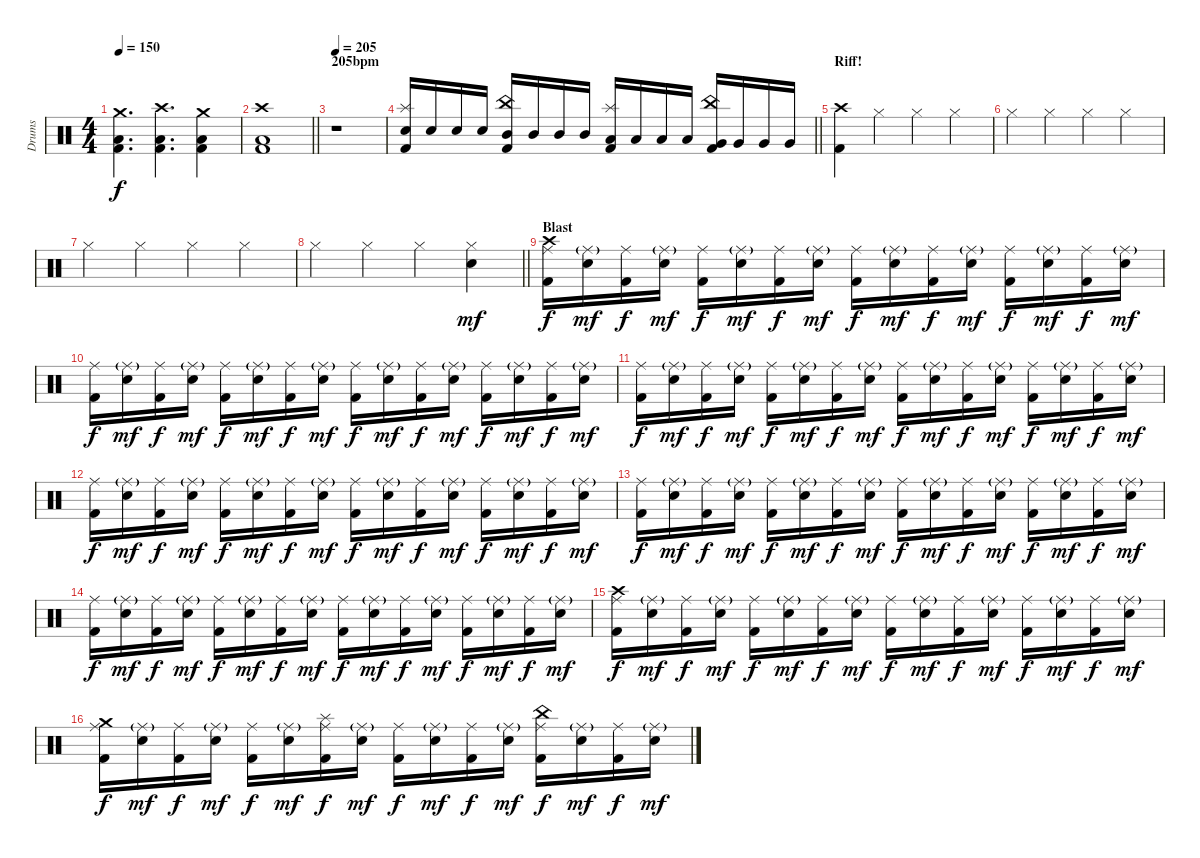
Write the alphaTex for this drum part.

\track ("Drums" "Drums") {instrument percussion}
\staff {score}
\articulation defaults
\ts (4 4)
\tempo 150
\clef neutral
\ks c
("Crash medium (hit)" "Low Floor Tom (hit)" "Kick (hit) 2").4{d dy f} ("Crash high (hit)" "Low Floor Tom (hit)" "Kick (hit) 2").4{d} ("Crash medium (hit)" "Low Floor Tom (hit)" "Kick (hit) 2").4 |
\barLineRight lightlight
("Crash high (hit)" "Low Floor Tom (hit)" "Kick (hit) 2").1 |
\section ("" "205bpm")
\tempo 205
r.1 |
\barLineRight lightlight
("Splash (hit)" "Snare (hit) 2" "Kick (hit) 2").16 "Snare (hit) 2".16 "Snare (hit) 2".16 "Snare (hit) 2".16 ("China (hit)" "Mid Tom (hit)" "Kick (hit) 2").16 "Mid Tom (hit)".16 "Mid Tom (hit)".16 "Mid Tom (hit)".16 ("Splash (hit)" "Low Tom (hit)" "Kick (hit) 2").16 "Low Tom (hit)".16 "Low Tom (hit)".16 "Low Tom (hit)".16 ("China (hit)" "Very Low Tom (hit)" "Kick (hit) 2").16 "Very Low Tom (hit)".16 "Very Low Tom (hit)".16 "Very Low Tom (hit)".16 |
\section ("" "Riff!")
("Crash high (hit)" "Kick (hit) 2").4 "Hi-Hat (closed)".4 "Hi-Hat (closed)".4 "Hi-Hat (closed)".4 |
"Hi-Hat (closed)".4 "Hi-Hat (closed)".4 "Hi-Hat (closed)".4 "Hi-Hat (closed)".4 |
"Hi-Hat (closed)".4 "Hi-Hat (closed)".4 "Hi-Hat (closed)".4 "Hi-Hat (closed)".4 |
\barLineRight lightlight "Hi-Hat (closed)".4 "Hi-Hat (closed)".4 "Hi-Hat (closed)".4
("Hi-Hat (closed)" "Snare (hit) 2").4{dy mf} |
\section ("" "Blast")
("Crash high (hit)" "Ride (middle)" "Kick (hit) 2").16{dy f} ("Ride (middle)"{g} "Snare (hit) 2").16{dy mf} ("Ride (middle)" "Kick (hit) 2").16{dy f} ("Ride (middle)"{g} "Snare (hit) 2").16{dy mf} ("Ride (middle)" "Kick (hit) 2").16{dy f} ("Ride (middle)"{g} "Snare (hit) 2").16{dy mf} ("Ride (middle)" "Kick (hit) 2").16{dy f} ("Ride (middle)"{g} "Snare (hit) 2").16{dy mf} ("Ride (middle)" "Kick (hit) 2").16{dy f} ("Ride (middle)"{g} "Snare (hit) 2").16{dy mf} ("Ride (middle)" "Kick (hit) 2").16{dy f} ("Ride (middle)"{g} "Snare (hit) 2").16{dy mf} ("Ride (middle)" "Kick (hit) 2").16{dy f} ("Ride (middle)"{g} "Snare (hit) 2").16{dy mf} ("Ride (middle)" "Kick (hit) 2").16{dy f} ("Ride (middle)"{g} "Snare (hit) 2").16{dy mf} |
("Ride (middle)" "Kick (hit) 2").16{dy f} ("Ride (middle)"{g} "Snare (hit) 2").16{dy mf} ("Ride (middle)" "Kick (hit) 2").16{dy f} ("Ride (middle)"{g} "Snare (hit) 2").16{dy mf} ("Ride (middle)" "Kick (hit) 2").16{dy f} ("Ride (middle)"{g} "Snare (hit) 2").16{dy mf} ("Ride (middle)" "Kick (hit) 2").16{dy f} ("Ride (middle)"{g} "Snare (hit) 2").16{dy mf} ("Ride (middle)" "Kick (hit) 2").16{dy f} ("Ride (middle)"{g} "Snare (hit) 2").16{dy mf} ("Ride (middle)" "Kick (hit) 2").16{dy f} ("Ride (middle)"{g} "Snare (hit) 2").16{dy mf} ("Ride (middle)" "Kick (hit) 2").16{dy f} ("Ride (middle)"{g} "Snare (hit) 2").16{dy mf} ("Ride (middle)" "Kick (hit) 2").16{dy f} ("Ride (middle)"{g} "Snare (hit) 2").16{dy mf} |
("Ride (middle)" "Kick (hit) 2").16{dy f} ("Ride (middle)"{g} "Snare (hit) 2").16{dy mf} ("Ride (middle)" "Kick (hit) 2").16{dy f} ("Ride (middle)"{g} "Snare (hit) 2").16{dy mf} ("Ride (middle)" "Kick (hit) 2").16{dy f} ("Ride (middle)"{g} "Snare (hit) 2").16{dy mf} ("Ride (middle)" "Kick (hit) 2").16{dy f} ("Ride (middle)"{g} "Snare (hit) 2").16{dy mf} ("Ride (middle)" "Kick (hit) 2").16{dy f} ("Ride (middle)"{g} "Snare (hit) 2").16{dy mf} ("Ride (middle)" "Kick (hit) 2").16{dy f} ("Ride (middle)"{g} "Snare (hit) 2").16{dy mf} ("Ride (middle)" "Kick (hit) 2").16{dy f} ("Ride (middle)"{g} "Snare (hit) 2").16{dy mf} ("Ride (middle)" "Kick (hit) 2").16{dy f} ("Ride (middle)"{g} "Snare (hit) 2").16{dy mf} |
("Ride (middle)" "Kick (hit) 2").16{dy f} ("Ride (middle)"{g} "Snare (hit) 2").16{dy mf} ("Ride (middle)" "Kick (hit) 2").16{dy f} ("Ride (middle)"{g} "Snare (hit) 2").16{dy mf} ("Ride (middle)" "Kick (hit) 2").16{dy f} ("Ride (middle)"{g} "Snare (hit) 2").16{dy mf} ("Ride (middle)" "Kick (hit) 2").16{dy f} ("Ride (middle)"{g} "Snare (hit) 2").16{dy mf} ("Ride (middle)" "Kick (hit) 2").16{dy f} ("Ride (middle)"{g} "Snare (hit) 2").16{dy mf} ("Ride (middle)" "Kick (hit) 2").16{dy f} ("Ride (middle)"{g} "Snare (hit) 2").16{dy mf} ("Ride (middle)" "Kick (hit) 2").16{dy f} ("Ride (middle)"{g} "Snare (hit) 2").16{dy mf} ("Ride (middle)" "Kick (hit) 2").16{dy f} ("Ride (middle)"{g} "Snare (hit) 2").16{dy mf} |
("Ride (middle)" "Kick (hit) 2").16{dy f} ("Ride (middle)"{g} "Snare (hit) 2").16{dy mf} ("Ride (middle)" "Kick (hit) 2").16{dy f} ("Ride (middle)"{g} "Snare (hit) 2").16{dy mf} ("Ride (middle)" "Kick (hit) 2").16{dy f} ("Ride (middle)"{g} "Snare (hit) 2").16{dy mf} ("Ride (middle)" "Kick (hit) 2").16{dy f} ("Ride (middle)"{g} "Snare (hit) 2").16{dy mf} ("Ride (middle)" "Kick (hit) 2").16{dy f} ("Ride (middle)"{g} "Snare (hit) 2").16{dy mf} ("Ride (middle)" "Kick (hit) 2").16{dy f} ("Ride (middle)"{g} "Snare (hit) 2").16{dy mf} ("Ride (middle)" "Kick (hit) 2").16{dy f} ("Ride (middle)"{g} "Snare (hit) 2").16{dy mf} ("Ride (middle)" "Kick (hit) 2").16{dy f} ("Ride (middle)"{g} "Snare (hit) 2").16{dy mf} |
("Ride (middle)" "Kick (hit) 2").16{dy f} ("Ride (middle)"{g} "Snare (hit) 2").16{dy mf} ("Ride (middle)" "Kick (hit) 2").16{dy f} ("Ride (middle)"{g} "Snare (hit) 2").16{dy mf} ("Ride (middle)" "Kick (hit) 2").16{dy f} ("Ride (middle)"{g} "Snare (hit) 2").16{dy mf} ("Ride (middle)" "Kick (hit) 2").16{dy f} ("Ride (middle)"{g} "Snare (hit) 2").16{dy mf} ("Ride (middle)" "Kick (hit) 2").16{dy f} ("Ride (middle)"{g} "Snare (hit) 2").16{dy mf} ("Ride (middle)" "Kick (hit) 2").16{dy f} ("Ride (middle)"{g} "Snare (hit) 2").16{dy mf} ("Ride (middle)" "Kick (hit) 2").16{dy f} ("Ride (middle)"{g} "Snare (hit) 2").16{dy mf} ("Ride (middle)" "Kick (hit) 2").16{dy f} ("Ride (middle)"{g} "Snare (hit) 2").16{dy mf} |
("Crash high (hit)" "Ride (middle)" "Kick (hit) 2").16{dy f} ("Ride (middle)"{g} "Snare (hit) 2").16{dy mf} ("Ride (middle)" "Kick (hit) 2").16{dy f} ("Ride (middle)"{g} "Snare (hit) 2").16{dy mf} ("Ride (middle)" "Kick (hit) 2").16{dy f} ("Ride (middle)"{g} "Snare (hit) 2").16{dy mf} ("Ride (middle)" "Kick (hit) 2").16{dy f} ("Ride (middle)"{g} "Snare (hit) 2").16{dy mf} ("Ride (middle)" "Kick (hit) 2").16{dy f} ("Ride (middle)"{g} "Snare (hit) 2").16{dy mf} ("Ride (middle)" "Kick (hit) 2").16{dy f} ("Ride (middle)"{g} "Snare (hit) 2").16{dy mf} ("Ride (middle)" "Kick (hit) 2").16{dy f} ("Ride (middle)"{g} "Snare (hit) 2").16{dy mf} ("Ride (middle)" "Kick (hit) 2").16{dy f} ("Ride (middle)"{g} "Snare (hit) 2").16{dy mf} |
("Crash medium (hit)" "Ride (middle)" "Kick (hit) 2").16{dy f} ("Ride (middle)"{g} "Snare (hit) 2").16{dy mf} ("Ride (middle)" "Kick (hit) 2").16{dy f} ("Ride (middle)"{g} "Snare (hit) 2").16{dy mf} ("Ride (middle)" "Kick (hit) 2").16{dy f} ("Ride (middle)"{g} "Snare (hit) 2").16{dy mf} ("Splash (hit)" "Ride (middle)" "Kick (hit) 2").16{dy f} ("Ride (middle)"{g} "Snare (hit) 2").16{dy mf} ("Ride (middle)" "Kick (hit) 2").16{dy f} ("Ride (middle)"{g} "Snare (hit) 2").16{dy mf} ("Ride (middle)" "Kick (hit) 2").16{dy f} ("Ride (middle)"{g} "Snare (hit) 2").16{dy mf} ("China (hit)" "Ride (middle)" "Kick (hit) 2").16{dy f} ("Ride (middle)"{g} "Snare (hit) 2").16{dy mf} ("Ride (middle)" "Kick (hit) 2").16{dy f} ("Ride (middle)"{g} "Snare (hit) 2").16{dy mf}
